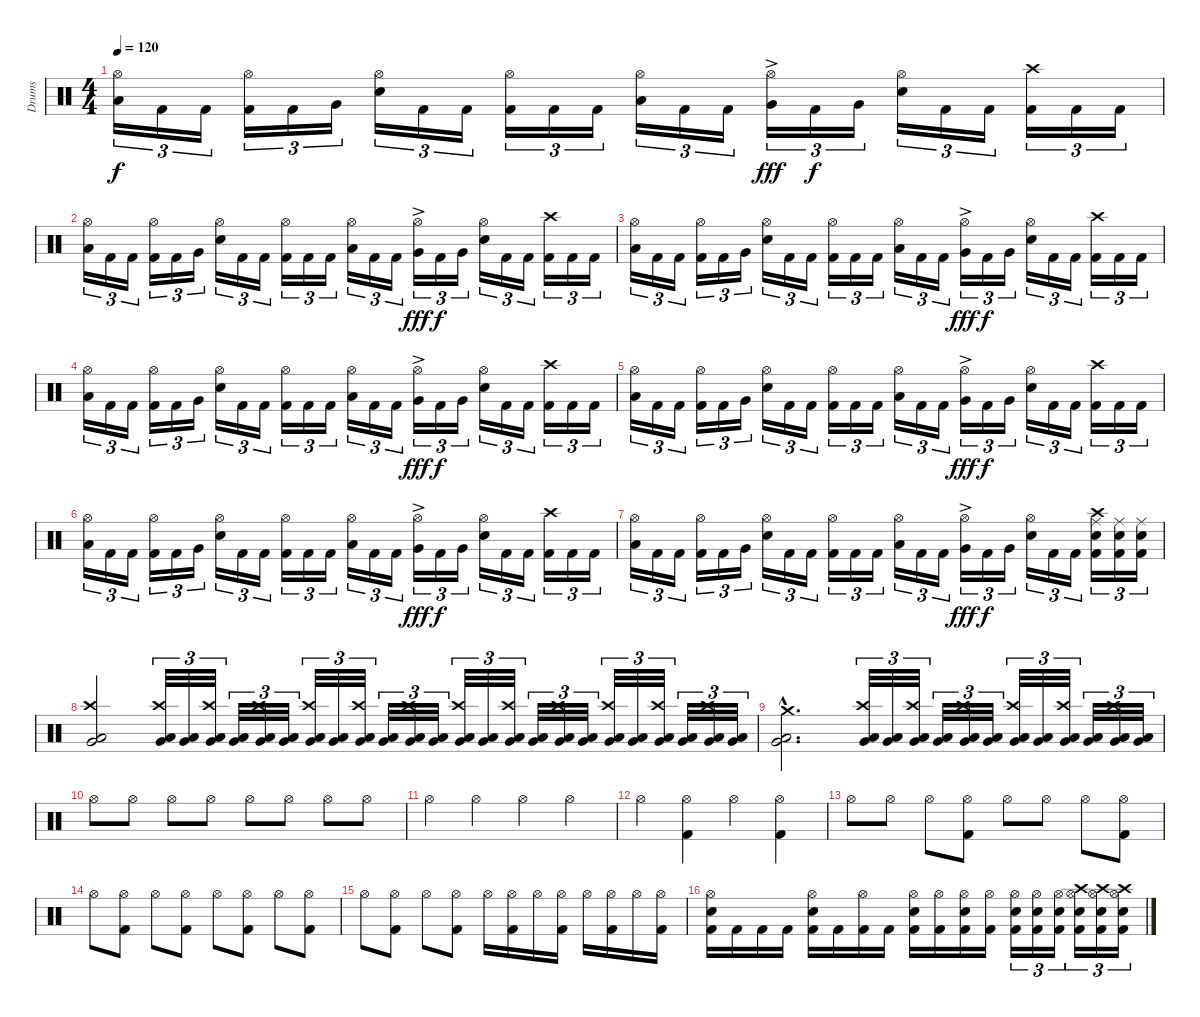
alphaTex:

\track ("Drums" "Drums") {instrument percussion}
\staff {score}
\articulation defaults
\ts (4 4)
\tempo 120
\clef neutral
\ks c
("Hi-Hat (open)" "Low Tom (hit)").16{tu (3 2) dy f} "Kick (hit) 2".16{tu (3 2)} "Kick (hit) 2".16{tu (3 2)} ("Hi-Hat (open)" "Kick (hit) 2").16{tu (3 2)} "Kick (hit) 2".16{tu (3 2)} "Very Low Tom (hit)".16{tu (3 2)} ("Hi-Hat (open)" "Electric Snare (hit)").16{tu (3 2)} "Kick (hit) 2".16{tu (3 2)} "Kick (hit) 2".16{tu (3 2)} ("Hi-Hat (open)" "Kick (hit) 2").16{tu (3 2)} "Kick (hit) 2".16{tu (3 2)} "Kick (hit) 2".16{tu (3 2)} ("Hi-Hat (open)" "Low Tom (hit)").16{tu (3 2)} "Kick (hit) 2".16{tu (3 2)} "Kick (hit) 2".16{tu (3 2)} ("Hi-Hat (open)" "Very Low Tom (hit)"{ac}).16{tu (3 2) dy fff} "Kick (hit) 2".16{tu (3 2) dy f} "Very Low Tom (hit)".16{tu (3 2)} ("Hi-Hat (open)" "Electric Snare (hit)").16{tu (3 2)} "Kick (hit) 2".16{tu (3 2)} "Kick (hit) 2".16{tu (3 2)} ("Crash high (hit)" "Kick (hit) 2").16{tu (3 2)} "Kick (hit) 2".16{tu (3 2)} "Kick (hit) 2".16{tu (3 2)} |
("Hi-Hat (open)" "Low Tom (hit)").16{tu (3 2)} "Kick (hit) 2".16{tu (3 2)} "Kick (hit) 2".16{tu (3 2)} ("Hi-Hat (open)" "Kick (hit) 2").16{tu (3 2)} "Kick (hit) 2".16{tu (3 2)} "Very Low Tom (hit)".16{tu (3 2)} ("Hi-Hat (open)" "Electric Snare (hit)").16{tu (3 2)} "Kick (hit) 2".16{tu (3 2)} "Kick (hit) 2".16{tu (3 2)} ("Hi-Hat (open)" "Kick (hit) 2").16{tu (3 2)} "Kick (hit) 2".16{tu (3 2)} "Kick (hit) 2".16{tu (3 2)} ("Hi-Hat (open)" "Low Tom (hit)").16{tu (3 2)} "Kick (hit) 2".16{tu (3 2)} "Kick (hit) 2".16{tu (3 2)} ("Hi-Hat (open)" "Very Low Tom (hit)"{ac}).16{tu (3 2) dy fff} "Kick (hit) 2".16{tu (3 2) dy f} "Very Low Tom (hit)".16{tu (3 2)} ("Hi-Hat (open)" "Electric Snare (hit)").16{tu (3 2)} "Kick (hit) 2".16{tu (3 2)} "Kick (hit) 2".16{tu (3 2)} ("Crash high (hit)" "Kick (hit) 2").16{tu (3 2)} "Kick (hit) 2".16{tu (3 2)} "Kick (hit) 2".16{tu (3 2)} |
("Hi-Hat (open)" "Low Tom (hit)").16{tu (3 2)} "Kick (hit) 2".16{tu (3 2)} "Kick (hit) 2".16{tu (3 2)} ("Hi-Hat (open)" "Kick (hit) 2").16{tu (3 2)} "Kick (hit) 2".16{tu (3 2)} "Very Low Tom (hit)".16{tu (3 2)} ("Hi-Hat (open)" "Electric Snare (hit)").16{tu (3 2)} "Kick (hit) 2".16{tu (3 2)} "Kick (hit) 2".16{tu (3 2)} ("Hi-Hat (open)" "Kick (hit) 2").16{tu (3 2)} "Kick (hit) 2".16{tu (3 2)} "Kick (hit) 2".16{tu (3 2)} ("Hi-Hat (open)" "Low Tom (hit)").16{tu (3 2)} "Kick (hit) 2".16{tu (3 2)} "Kick (hit) 2".16{tu (3 2)} ("Hi-Hat (open)" "Very Low Tom (hit)"{ac}).16{tu (3 2) dy fff} "Kick (hit) 2".16{tu (3 2) dy f} "Very Low Tom (hit)".16{tu (3 2)} ("Hi-Hat (open)" "Electric Snare (hit)").16{tu (3 2)} "Kick (hit) 2".16{tu (3 2)} "Kick (hit) 2".16{tu (3 2)} ("Crash high (hit)" "Kick (hit) 2").16{tu (3 2)} "Kick (hit) 2".16{tu (3 2)} "Kick (hit) 2".16{tu (3 2)} |
("Hi-Hat (open)" "Low Tom (hit)").16{tu (3 2)} "Kick (hit) 2".16{tu (3 2)} "Kick (hit) 2".16{tu (3 2)} ("Hi-Hat (open)" "Kick (hit) 2").16{tu (3 2)} "Kick (hit) 2".16{tu (3 2)} "Very Low Tom (hit)".16{tu (3 2)} ("Hi-Hat (open)" "Electric Snare (hit)").16{tu (3 2)} "Kick (hit) 2".16{tu (3 2)} "Kick (hit) 2".16{tu (3 2)} ("Hi-Hat (open)" "Kick (hit) 2").16{tu (3 2)} "Kick (hit) 2".16{tu (3 2)} "Kick (hit) 2".16{tu (3 2)} ("Hi-Hat (open)" "Low Tom (hit)").16{tu (3 2)} "Kick (hit) 2".16{tu (3 2)} "Kick (hit) 2".16{tu (3 2)} ("Hi-Hat (open)" "Very Low Tom (hit)"{ac}).16{tu (3 2) dy fff} "Kick (hit) 2".16{tu (3 2) dy f} "Very Low Tom (hit)".16{tu (3 2)} ("Hi-Hat (open)" "Electric Snare (hit)").16{tu (3 2)} "Kick (hit) 2".16{tu (3 2)} "Kick (hit) 2".16{tu (3 2)} ("Crash high (hit)" "Kick (hit) 2").16{tu (3 2)} "Kick (hit) 2".16{tu (3 2)} "Kick (hit) 2".16{tu (3 2)} |
("Hi-Hat (open)" "Low Tom (hit)").16{tu (3 2)} "Kick (hit) 2".16{tu (3 2)} "Kick (hit) 2".16{tu (3 2)} ("Hi-Hat (open)" "Kick (hit) 2").16{tu (3 2)} "Kick (hit) 2".16{tu (3 2)} "Very Low Tom (hit)".16{tu (3 2)} ("Hi-Hat (open)" "Electric Snare (hit)").16{tu (3 2)} "Kick (hit) 2".16{tu (3 2)} "Kick (hit) 2".16{tu (3 2)} ("Hi-Hat (open)" "Kick (hit) 2").16{tu (3 2)} "Kick (hit) 2".16{tu (3 2)} "Kick (hit) 2".16{tu (3 2)} ("Hi-Hat (open)" "Low Tom (hit)").16{tu (3 2)} "Kick (hit) 2".16{tu (3 2)} "Kick (hit) 2".16{tu (3 2)} ("Hi-Hat (open)" "Very Low Tom (hit)"{ac}).16{tu (3 2) dy fff} "Kick (hit) 2".16{tu (3 2) dy f} "Very Low Tom (hit)".16{tu (3 2)} ("Hi-Hat (open)" "Electric Snare (hit)").16{tu (3 2)} "Kick (hit) 2".16{tu (3 2)} "Kick (hit) 2".16{tu (3 2)} ("Crash high (hit)" "Kick (hit) 2").16{tu (3 2)} "Kick (hit) 2".16{tu (3 2)} "Kick (hit) 2".16{tu (3 2)} |
("Hi-Hat (open)" "Low Tom (hit)").16{tu (3 2)} "Kick (hit) 2".16{tu (3 2)} "Kick (hit) 2".16{tu (3 2)} ("Hi-Hat (open)" "Kick (hit) 2").16{tu (3 2)} "Kick (hit) 2".16{tu (3 2)} "Very Low Tom (hit)".16{tu (3 2)} ("Hi-Hat (open)" "Electric Snare (hit)").16{tu (3 2)} "Kick (hit) 2".16{tu (3 2)} "Kick (hit) 2".16{tu (3 2)} ("Hi-Hat (open)" "Kick (hit) 2").16{tu (3 2)} "Kick (hit) 2".16{tu (3 2)} "Kick (hit) 2".16{tu (3 2)} ("Hi-Hat (open)" "Low Tom (hit)").16{tu (3 2)} "Kick (hit) 2".16{tu (3 2)} "Kick (hit) 2".16{tu (3 2)} ("Hi-Hat (open)" "Very Low Tom (hit)"{ac}).16{tu (3 2) dy fff} "Kick (hit) 2".16{tu (3 2) dy f} "Very Low Tom (hit)".16{tu (3 2)} ("Hi-Hat (open)" "Electric Snare (hit)").16{tu (3 2)} "Kick (hit) 2".16{tu (3 2)} "Kick (hit) 2".16{tu (3 2)} ("Crash high (hit)" "Kick (hit) 2").16{tu (3 2)} "Kick (hit) 2".16{tu (3 2)} "Kick (hit) 2".16{tu (3 2)} |
("Hi-Hat (open)" "Low Tom (hit)").16{tu (3 2)} "Kick (hit) 2".16{tu (3 2)} "Kick (hit) 2".16{tu (3 2)} ("Hi-Hat (open)" "Kick (hit) 2").16{tu (3 2)} "Kick (hit) 2".16{tu (3 2)} "Very Low Tom (hit)".16{tu (3 2)} ("Hi-Hat (open)" "Electric Snare (hit)").16{tu (3 2)} "Kick (hit) 2".16{tu (3 2)} "Kick (hit) 2".16{tu (3 2)} ("Hi-Hat (open)" "Kick (hit) 2").16{tu (3 2)} "Kick (hit) 2".16{tu (3 2)} "Kick (hit) 2".16{tu (3 2)} ("Hi-Hat (open)" "Low Tom (hit)").16{tu (3 2)} "Kick (hit) 2".16{tu (3 2)} "Kick (hit) 2".16{tu (3 2)} ("Hi-Hat (open)" "Very Low Tom (hit)"{ac}).16{tu (3 2) dy fff} "Kick (hit) 2".16{tu (3 2) dy f} "Very Low Tom (hit)".16{tu (3 2)} ("Hi-Hat (open)" "Electric Snare (hit)").16{tu (3 2)} "Kick (hit) 2".16{tu (3 2)} "Kick (hit) 2".16{tu (3 2)} ("Crash high (hit)" "Ride (middle)" "Kick (hit) 2" "Electric Snare (hit)").16{tu (3 2)} ("Ride (middle)" "Kick (hit) 2" "Electric Snare (hit)").16{tu (3 2)} ("Ride (middle)" "Kick (hit) 2" "Electric Snare (hit)").16{tu (3 2)} |
("Crash high (hit)" "Low Floor Tom (hit)" "Very Low Tom (hit)").2 ("Crash high (hit)" "Low Floor Tom (hit)" "Very Low Tom (hit)").32{tu (3 2)} ("Low Floor Tom (hit)" "Very Low Tom (hit)").32{tu (3 2)} ("Crash high (hit)" "Low Floor Tom (hit)" "Very Low Tom (hit)").32{tu (3 2)} ("Low Floor Tom (hit)" "Very Low Tom (hit)").32{tu (3 2)} ("Crash high (hit)" "Low Floor Tom (hit)" "Very Low Tom (hit)").32{tu (3 2)} ("Low Floor Tom (hit)" "Very Low Tom (hit)").32{tu (3 2)} ("Crash high (hit)" "Low Floor Tom (hit)" "Very Low Tom (hit)").32{tu (3 2)} ("Low Floor Tom (hit)" "Very Low Tom (hit)").32{tu (3 2)} ("Crash high (hit)" "Low Floor Tom (hit)" "Very Low Tom (hit)").32{tu (3 2)} ("Low Floor Tom (hit)" "Very Low Tom (hit)").32{tu (3 2)} ("Crash high (hit)" "Low Floor Tom (hit)" "Very Low Tom (hit)").32{tu (3 2)} ("Low Floor Tom (hit)" "Very Low Tom (hit)").32{tu (3 2)} ("Crash high (hit)" "Low Floor Tom (hit)" "Very Low Tom (hit)").32{tu (3 2)} ("Low Floor Tom (hit)" "Very Low Tom (hit)").32{tu (3 2)} ("Crash high (hit)" "Low Floor Tom (hit)" "Very Low Tom (hit)").32{tu (3 2)} ("Low Floor Tom (hit)" "Very Low Tom (hit)").32{tu (3 2)} ("Crash high (hit)" "Low Floor Tom (hit)" "Very Low Tom (hit)").32{tu (3 2)} ("Low Floor Tom (hit)" "Very Low Tom (hit)").32{tu (3 2)} ("Crash high (hit)" "Low Floor Tom (hit)" "Very Low Tom (hit)").32{tu (3 2)} ("Low Floor Tom (hit)" "Very Low Tom (hit)").32{tu (3 2)} ("Crash high (hit)" "Low Floor Tom (hit)" "Very Low Tom (hit)").32{tu (3 2)} ("Low Floor Tom (hit)" "Very Low Tom (hit)").32{tu (3 2)} ("Crash high (hit)" "Low Floor Tom (hit)" "Very Low Tom (hit)").32{tu (3 2)} ("Low Floor Tom (hit)" "Very Low Tom (hit)").32{tu (3 2)} |
("Crash medium (hit)"{hac} "Low Floor Tom (hit)"{hac} "Very Low Tom (hit)"{hac}).2{d} ("Crash high (hit)" "Low Floor Tom (hit)" "Very Low Tom (hit)").32{tu (3 2)} ("Low Floor Tom (hit)" "Very Low Tom (hit)").32{tu (3 2)} ("Crash high (hit)" "Low Floor Tom (hit)" "Very Low Tom (hit)").32{tu (3 2)} ("Low Floor Tom (hit)" "Very Low Tom (hit)").32{tu (3 2)} ("Crash high (hit)" "Low Floor Tom (hit)" "Very Low Tom (hit)").32{tu (3 2)} ("Low Floor Tom (hit)" "Very Low Tom (hit)").32{tu (3 2)} ("Crash high (hit)" "Low Floor Tom (hit)" "Very Low Tom (hit)").32{tu (3 2)} ("Low Floor Tom (hit)" "Very Low Tom (hit)").32{tu (3 2)} ("Crash high (hit)" "Low Floor Tom (hit)" "Very Low Tom (hit)").32{tu (3 2)} ("Low Floor Tom (hit)" "Very Low Tom (hit)").32{tu (3 2)} ("Crash high (hit)" "Low Floor Tom (hit)" "Very Low Tom (hit)").32{tu (3 2)} ("Low Floor Tom (hit)" "Very Low Tom (hit)").32{tu (3 2)} |
"Hi-Hat (open)".8 "Hi-Hat (open)".8 "Hi-Hat (open)".8 "Hi-Hat (open)".8 "Hi-Hat (open)".8 "Hi-Hat (open)".8 "Hi-Hat (open)".8 "Hi-Hat (open)".8 |
"Hi-Hat (open)".4 "Hi-Hat (open)".4 "Hi-Hat (open)".4 "Hi-Hat (open)".4 |
"Hi-Hat (open)".4 ("Hi-Hat (open)" "Kick (hit) 2").4 "Hi-Hat (open)".4 ("Hi-Hat (open)" "Kick (hit) 2").4 |
"Hi-Hat (open)".8 "Hi-Hat (open)".8 "Hi-Hat (open)".8 ("Hi-Hat (open)" "Kick (hit) 2").8 "Hi-Hat (open)".8 "Hi-Hat (open)".8 "Hi-Hat (open)".8 ("Hi-Hat (open)" "Kick (hit) 2").8 |
"Hi-Hat (open)".8 ("Hi-Hat (open)" "Kick (hit) 2").8 "Hi-Hat (open)".8 ("Hi-Hat (open)" "Kick (hit) 2").8 "Hi-Hat (open)".8 ("Hi-Hat (open)" "Kick (hit) 2").8 "Hi-Hat (open)".8 ("Hi-Hat (open)" "Kick (hit) 2").8 |
"Hi-Hat (open)".8 ("Hi-Hat (open)" "Kick (hit) 2").8 "Hi-Hat (open)".8 ("Hi-Hat (open)" "Kick (hit) 2").8 "Hi-Hat (open)".16 ("Hi-Hat (open)" "Kick (hit) 2").16 "Hi-Hat (open)".16 ("Hi-Hat (open)" "Kick (hit) 2").16 "Hi-Hat (open)".16 ("Hi-Hat (open)" "Kick (hit) 2").16 "Hi-Hat (open)".16 ("Hi-Hat (open)" "Kick (hit) 2").16 |
("Hi-Hat (open)" "Electric Snare (hit)" "Kick (hit) 2").16 "Kick (hit) 2".16 "Kick (hit) 2".16 "Kick (hit) 2".16 ("Hi-Hat (open)" "Electric Snare (hit)" "Kick (hit) 2").16 "Kick (hit) 2".16 ("Hi-Hat (open)" "Kick (hit) 2").16 "Kick (hit) 2".16 ("Hi-Hat (open)" "Electric Snare (hit)" "Kick (hit) 2").16 ("Hi-Hat (open)" "Kick (hit) 2").16 ("Hi-Hat (open)" "Electric Snare (hit)" "Kick (hit) 2").16 ("Hi-Hat (open)" "Kick (hit) 2").16 ("Hi-Hat (open)" "Electric Snare (hit)" "Kick (hit) 2").16{tu (3 2)} ("Hi-Hat (open)" "Electric Snare (hit)" "Kick (hit) 2").16{tu (3 2)} ("Hi-Hat (open)" "Electric Snare (hit)" "Kick (hit) 2").16{tu (3 2)} ("Crash high (hit)" "Hi-Hat (open)" "Electric Snare (hit)" "Kick (hit) 2").16{tu (3 2)} ("Crash high (hit)" "Hi-Hat (open)" "Electric Snare (hit)" "Kick (hit) 2").16{tu (3 2)} ("Crash high (hit)" "Hi-Hat (open)" "Electric Snare (hit)" "Kick (hit) 2").16{tu (3 2)}
